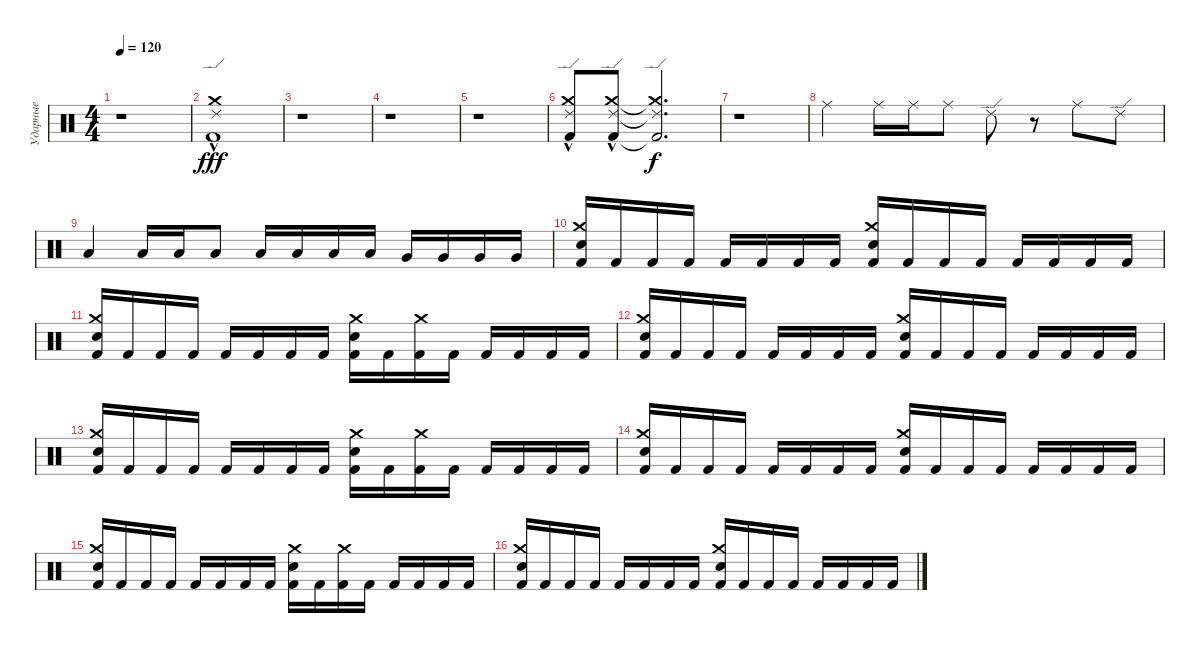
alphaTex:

\track ("Ударные" "Ударные") {instrument percussion}
\staff {score}
\articulation defaults
\ts (4 4)
\tempo 120
\clef neutral
\ks c
r.1{dy f} |
("Kick (hit) 2"{hac} "Crash medium (hit)"{hac} "Ride (edge) 2"{hac}).1{dy fff} |
r.1 |
r.1 |
r.1 |
("Kick (hit) 2"{hac} "Crash medium (hit)"{hac} "Ride (edge) 2"{hac}).8 ("Kick (hit) 2"{hac} "Crash medium (hit)"{hac} "Ride (edge) 2"{hac}).8 ("Kick (hit) 2"{t} "Crash medium (hit)"{t} "Ride (edge) 2"{t}).2{d dy f} |
r.1 |
"Ride (middle)".4 "Ride (middle)".16 "Ride (middle)".16 "Ride (middle)".8 "Ride (edge) 2".8 r.8 "Ride (middle)".8 "Ride (edge) 2".8 |
"Low Tom (hit)".4 "Low Tom (hit)".16 "Low Tom (hit)".16 "Low Tom (hit)".8 "Low Tom (hit)".16 "Low Tom (hit)".16 "Low Tom (hit)".16 "Low Tom (hit)".16 "Very Low Tom (hit)".16 "Very Low Tom (hit)".16 "Very Low Tom (hit)".16 "Very Low Tom (hit)".16 |
("Electric Snare (hit)" "Kick (hit) 2" "Crash medium (hit)").16 "Kick (hit) 2".16 "Kick (hit) 2".16 "Kick (hit) 2".16 "Kick (hit) 2".16 "Kick (hit) 2".16 "Kick (hit) 2".16 "Kick (hit) 2".16 ("Electric Snare (hit)" "Kick (hit) 2" "Crash medium (hit)").16 "Kick (hit) 2".16 "Kick (hit) 2".16 "Kick (hit) 2".16 "Kick (hit) 2".16 "Kick (hit) 2".16 "Kick (hit) 2".16 "Kick (hit) 2".16 |
("Electric Snare (hit)" "Kick (hit) 2" "Crash medium (hit)").16 "Kick (hit) 2".16 "Kick (hit) 2".16 "Kick (hit) 2".16 "Kick (hit) 2".16 "Kick (hit) 2".16 "Kick (hit) 2".16 "Kick (hit) 2".16 ("Electric Snare (hit)" "Kick (hit) 2" "Crash medium (hit)").16 "Kick (hit) 2".16 ("Kick (hit) 2" "Crash medium (hit)").16 "Kick (hit) 2".16 "Kick (hit) 2".16 "Kick (hit) 2".16 "Kick (hit) 2".16 "Kick (hit) 2".16 |
("Electric Snare (hit)" "Kick (hit) 2" "Crash medium (hit)").16 "Kick (hit) 2".16 "Kick (hit) 2".16 "Kick (hit) 2".16 "Kick (hit) 2".16 "Kick (hit) 2".16 "Kick (hit) 2".16 "Kick (hit) 2".16 ("Electric Snare (hit)" "Kick (hit) 2" "Crash medium (hit)").16 "Kick (hit) 2".16 "Kick (hit) 2".16 "Kick (hit) 2".16 "Kick (hit) 2".16 "Kick (hit) 2".16 "Kick (hit) 2".16 "Kick (hit) 2".16 |
("Electric Snare (hit)" "Kick (hit) 2" "Crash medium (hit)").16 "Kick (hit) 2".16 "Kick (hit) 2".16 "Kick (hit) 2".16 "Kick (hit) 2".16 "Kick (hit) 2".16 "Kick (hit) 2".16 "Kick (hit) 2".16 ("Electric Snare (hit)" "Kick (hit) 2" "Crash medium (hit)").16 "Kick (hit) 2".16 ("Kick (hit) 2" "Crash medium (hit)").16 "Kick (hit) 2".16 "Kick (hit) 2".16 "Kick (hit) 2".16 "Kick (hit) 2".16 "Kick (hit) 2".16 |
("Electric Snare (hit)" "Kick (hit) 2" "Crash medium (hit)").16 "Kick (hit) 2".16 "Kick (hit) 2".16 "Kick (hit) 2".16 "Kick (hit) 2".16 "Kick (hit) 2".16 "Kick (hit) 2".16 "Kick (hit) 2".16 ("Electric Snare (hit)" "Kick (hit) 2" "Crash medium (hit)").16 "Kick (hit) 2".16 "Kick (hit) 2".16 "Kick (hit) 2".16 "Kick (hit) 2".16 "Kick (hit) 2".16 "Kick (hit) 2".16 "Kick (hit) 2".16 |
("Electric Snare (hit)" "Kick (hit) 2" "Crash medium (hit)").16 "Kick (hit) 2".16 "Kick (hit) 2".16 "Kick (hit) 2".16 "Kick (hit) 2".16 "Kick (hit) 2".16 "Kick (hit) 2".16 "Kick (hit) 2".16 ("Electric Snare (hit)" "Kick (hit) 2" "Crash medium (hit)").16 "Kick (hit) 2".16 ("Kick (hit) 2" "Crash medium (hit)").16 "Kick (hit) 2".16 "Kick (hit) 2".16 "Kick (hit) 2".16 "Kick (hit) 2".16 "Kick (hit) 2".16 |
("Electric Snare (hit)" "Kick (hit) 2" "Crash medium (hit)").16 "Kick (hit) 2".16 "Kick (hit) 2".16 "Kick (hit) 2".16 "Kick (hit) 2".16 "Kick (hit) 2".16 "Kick (hit) 2".16 "Kick (hit) 2".16 ("Electric Snare (hit)" "Kick (hit) 2" "Crash medium (hit)").16 "Kick (hit) 2".16 "Kick (hit) 2".16 "Kick (hit) 2".16 "Kick (hit) 2".16 "Kick (hit) 2".16 "Kick (hit) 2".16 "Kick (hit) 2".16
